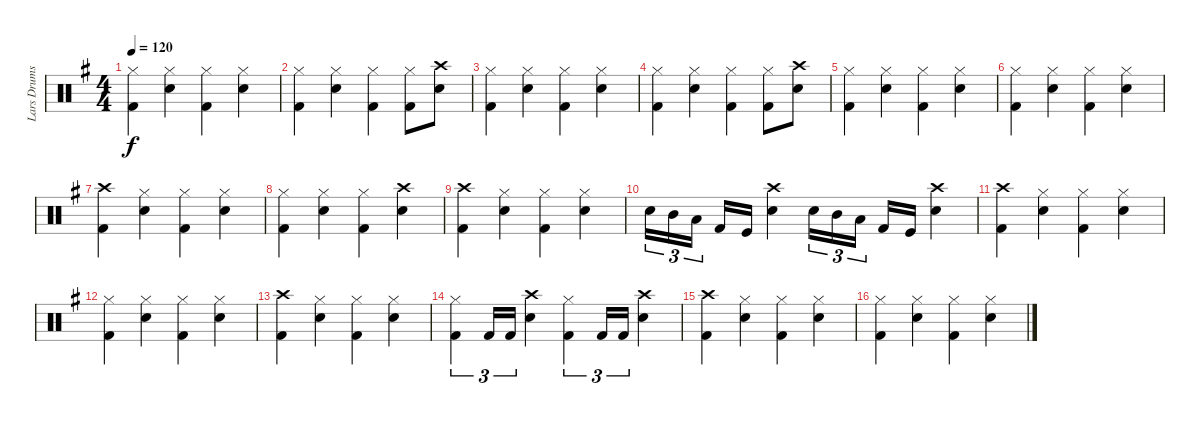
\track ("Lars Drums" "Lars Drums") {instrument percussion}
\staff {score}
\articulation defaults
\ts (4 4)
\tempo 120
\clef neutral
\ks g
("Hi-Hat (closed)" "Kick (hit) 2").4{dy f} ("Hi-Hat (closed)" "Snare (hit) 2").4 ("Hi-Hat (closed)" "Kick (hit) 2").4 ("Hi-Hat (closed)" "Snare (hit) 2").4 |
("Hi-Hat (closed)" "Kick (hit) 2").4 ("Hi-Hat (closed)" "Snare (hit) 2").4 ("Hi-Hat (closed)" "Kick (hit) 2").4 ("Hi-Hat (closed)" "Kick (hit) 2").8 ("Crash high (hit)" "Snare (hit) 2").8 |
("Hi-Hat (closed)" "Kick (hit) 2").4 ("Hi-Hat (closed)" "Snare (hit) 2").4 ("Hi-Hat (closed)" "Kick (hit) 2").4 ("Hi-Hat (closed)" "Snare (hit) 2").4 |
("Hi-Hat (closed)" "Kick (hit) 2").4 ("Hi-Hat (closed)" "Snare (hit) 2").4 ("Hi-Hat (closed)" "Kick (hit) 2").4 ("Hi-Hat (closed)" "Kick (hit) 2").8 ("Crash high (hit)" "Snare (hit) 2").8 |
("Hi-Hat (closed)" "Kick (hit) 2").4 ("Hi-Hat (closed)" "Snare (hit) 2").4 ("Hi-Hat (closed)" "Kick (hit) 2").4 ("Hi-Hat (closed)" "Snare (hit) 2").4 |
("Hi-Hat (closed)" "Kick (hit) 2").4 ("Hi-Hat (closed)" "Snare (hit) 2").4 ("Hi-Hat (closed)" "Kick (hit) 2").4 ("Hi-Hat (closed)" "Snare (hit) 2").4 |
("Crash high (hit)" "Kick (hit) 2").4 ("Hi-Hat (closed)" "Snare (hit) 2").4 ("Hi-Hat (closed)" "Kick (hit) 2").4 ("Hi-Hat (closed)" "Snare (hit) 2").4 |
("Hi-Hat (closed)" "Kick (hit) 2").4 ("Hi-Hat (closed)" "Snare (hit) 2").4 ("Hi-Hat (closed)" "Kick (hit) 2").4 ("Crash high (hit)" "Snare (hit) 2").4 |
("Crash high (hit)" "Kick (hit) 2").4 ("Hi-Hat (closed)" "Snare (hit) 2").4 ("Hi-Hat (closed)" "Kick (hit) 2").4 ("Hi-Hat (closed)" "Snare (hit) 2").4 |
"Snare (hit) 2".16{tu (3 2)} "Mid Tom (hit)".16{tu (3 2)} "Low Floor Tom (hit)".16{tu (3 2)} "Kick (hit) 2".16 "Kick (hit)".16 ("Crash high (hit)" "Snare (hit) 2").4 "Snare (hit) 2".16{tu (3 2)} "Mid Tom (hit)".16{tu (3 2)} "Low Floor Tom (hit)".16{tu (3 2)} "Kick (hit) 2".16 "Kick (hit)".16 ("Crash high (hit)" "Snare (hit) 2").4 |
("Crash high (hit)" "Kick (hit) 2").4 ("Hi-Hat (closed)" "Snare (hit) 2").4 ("Hi-Hat (closed)" "Kick (hit) 2").4 ("Hi-Hat (closed)" "Snare (hit) 2").4 |
("Hi-Hat (closed)" "Kick (hit) 2").4 ("Hi-Hat (closed)" "Snare (hit) 2").4 ("Hi-Hat (closed)" "Kick (hit) 2").4 ("Hi-Hat (closed)" "Snare (hit) 2").4 |
("Crash high (hit)" "Kick (hit) 2").4 ("Hi-Hat (closed)" "Snare (hit) 2").4 ("Hi-Hat (closed)" "Kick (hit) 2").4 ("Hi-Hat (closed)" "Snare (hit) 2").4 |
("Hi-Hat (closed)" "Kick (hit) 2").4{tu (3 2)} "Kick (hit) 2".16{tu (3 2)} "Kick (hit) 2".16{tu (3 2)} ("Crash high (hit)" "Snare (hit) 2").4 ("Hi-Hat (closed)" "Kick (hit) 2").4{tu (3 2)} "Kick (hit) 2".16{tu (3 2)} "Kick (hit) 2".16{tu (3 2)} ("Crash high (hit)" "Snare (hit) 2").4 |
("Crash high (hit)" "Kick (hit) 2").4 ("Hi-Hat (closed)" "Snare (hit) 2").4 ("Hi-Hat (closed)" "Kick (hit) 2").4 ("Hi-Hat (closed)" "Snare (hit) 2").4 |
("Hi-Hat (closed)" "Kick (hit) 2").4 ("Hi-Hat (closed)" "Snare (hit) 2").4 ("Hi-Hat (closed)" "Kick (hit) 2").4 ("Hi-Hat (closed)" "Snare (hit) 2").4
